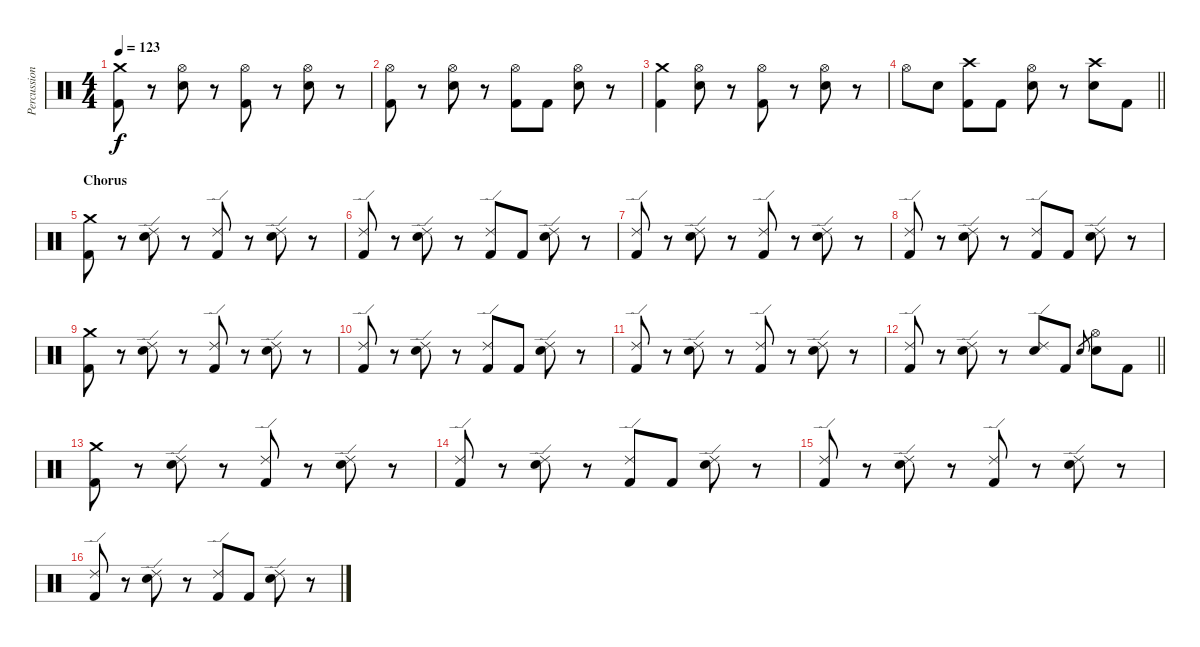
\track ("Percussion" "Percussion") {instrument percussion}
\staff {score}
\articulation defaults
\ts (4 4)
\tempo 123
\clef neutral
\ks c
("Crash medium (hit)" "Kick (hit) 2").8{dy f} r.8 ("Hi-Hat (open)" "Electric Snare (hit)").8 r.8 ("Hi-Hat (open)" "Kick (hit) 2").8 r.8 ("Hi-Hat (open)" "Electric Snare (hit)").8 r.8 |
("Hi-Hat (open)" "Kick (hit) 2").8 r.8 ("Hi-Hat (open)" "Electric Snare (hit)").8 r.8 ("Hi-Hat (open)" "Kick (hit) 2").8 "Kick (hit) 2".8 ("Hi-Hat (open)" "Electric Snare (hit)").8 r.8 |
("Crash medium (hit)" "Kick (hit) 2").4 ("Hi-Hat (open)" "Electric Snare (hit)").8 r.8 ("Hi-Hat (open)" "Kick (hit) 2").8 r.8 ("Hi-Hat (open)" "Electric Snare (hit)").8 r.8 |
\barLineRight lightlight "Hi-Hat (open)".8 "Electric Snare (hit)".8
("Crash high (hit)" "Kick (hit) 2").8 "Kick (hit) 2".8 ("Hi-Hat (open)" "Electric Snare (hit)").8 r.8 ("Crash high (hit)" "Electric Snare (hit)").8 "Kick (hit) 2".8 |
\section ("" "Chorus")
("Crash medium (hit)" "Kick (hit) 2").8 r.8 ("Ride (edge) 2" "Electric Snare (hit)").8 r.8 ("Ride (edge) 2" "Kick (hit) 2").8 r.8 ("Ride (edge) 2" "Electric Snare (hit)").8 r.8 |
("Ride (edge) 2" "Kick (hit) 2").8 r.8 ("Ride (edge) 2" "Electric Snare (hit)").8 r.8 ("Ride (edge) 2" "Kick (hit) 2").8 "Kick (hit) 2".8 ("Ride (edge) 2" "Electric Snare (hit)").8 r.8 |
("Ride (edge) 2" "Kick (hit) 2").8 r.8 ("Ride (edge) 2" "Electric Snare (hit)").8 r.8 ("Ride (edge) 2" "Kick (hit) 2").8 r.8 ("Ride (edge) 2" "Electric Snare (hit)").8 r.8 |
("Ride (edge) 2" "Kick (hit) 2").8 r.8 ("Ride (edge) 2" "Electric Snare (hit)").8 r.8 ("Ride (edge) 2" "Kick (hit) 2").8 "Kick (hit) 2".8 ("Ride (edge) 2" "Electric Snare (hit)").8 r.8 |
("Crash medium (hit)" "Kick (hit) 2").8 r.8 ("Ride (edge) 2" "Electric Snare (hit)").8 r.8 ("Ride (edge) 2" "Kick (hit) 2").8 r.8 ("Ride (edge) 2" "Electric Snare (hit)").8 r.8 |
("Ride (edge) 2" "Kick (hit) 2").8 r.8 ("Ride (edge) 2" "Electric Snare (hit)").8 r.8 ("Ride (edge) 2" "Kick (hit) 2").8 "Kick (hit) 2".8 ("Ride (edge) 2" "Electric Snare (hit)").8 r.8 |
("Ride (edge) 2" "Kick (hit) 2").8 r.8 ("Ride (edge) 2" "Electric Snare (hit)").8 r.8 ("Ride (edge) 2" "Kick (hit) 2").8 r.8 ("Ride (edge) 2" "Electric Snare (hit)").8 r.8 |
\barLineRight lightlight
("Ride (edge) 2" "Kick (hit) 2").8 r.8 ("Ride (edge) 2" "Electric Snare (hit)").8 r.8 ("Ride (edge) 2" "Electric Snare (hit)").8 "Kick (hit) 2".8 "Electric Snare (hit)".8{gr} ("Hi-Hat (open)" "Electric Snare (hit)").8 "Kick (hit) 2".8 |
("Crash medium (hit)" "Kick (hit) 2").8 r.8 ("Ride (edge) 2" "Electric Snare (hit)").8 r.8 ("Ride (edge) 2" "Kick (hit) 2").8 r.8 ("Ride (edge) 2" "Electric Snare (hit)").8 r.8 |
("Ride (edge) 2" "Kick (hit) 2").8 r.8 ("Ride (edge) 2" "Electric Snare (hit)").8 r.8 ("Ride (edge) 2" "Kick (hit) 2").8 "Kick (hit) 2".8 ("Ride (edge) 2" "Electric Snare (hit)").8 r.8 |
("Ride (edge) 2" "Kick (hit) 2").8 r.8 ("Ride (edge) 2" "Electric Snare (hit)").8 r.8 ("Ride (edge) 2" "Kick (hit) 2").8 r.8 ("Ride (edge) 2" "Electric Snare (hit)").8 r.8 |
("Ride (edge) 2" "Kick (hit) 2").8 r.8 ("Ride (edge) 2" "Electric Snare (hit)").8 r.8 ("Ride (edge) 2" "Kick (hit) 2").8 "Kick (hit) 2".8 ("Ride (edge) 2" "Electric Snare (hit)").8 r.8
